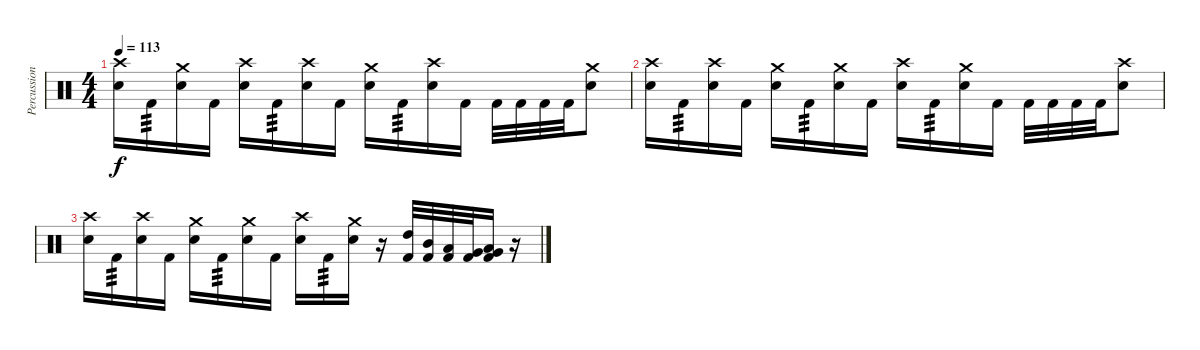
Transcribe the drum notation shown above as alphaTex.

\track ("Percussion" "Percussion") {instrument percussion}
\staff {score}
\articulation defaults
\ts (4 4)
\tempo 113
\clef neutral
\ks c
("Crash high (hit)" "Electric Snare (hit)").16{dy f} "Kick (hit) 2".16{tp 3} ("Crash medium (hit)" "Electric Snare (hit)").16 "Kick (hit) 2".16 ("Crash high (hit)" "Electric Snare (hit)").16 "Kick (hit) 2".16{tp 3} ("Crash high (hit)" "Electric Snare (hit)").16 "Kick (hit) 2".16 ("Crash medium (hit)" "Electric Snare (hit)").16 "Kick (hit) 2".16{tp 3} ("Crash high (hit)" "Electric Snare (hit)").16 "Kick (hit) 2".16 "Kick (hit) 2".32 "Kick (hit) 2".32 "Kick (hit) 2".32 "Kick (hit) 2".32 ("Crash medium (hit)" "Electric Snare (hit)").8 |
("Crash high (hit)" "Electric Snare (hit)").16 "Kick (hit) 2".16{tp 3} ("Crash high (hit)" "Electric Snare (hit)").16 "Kick (hit) 2".16 ("Crash medium (hit)" "Electric Snare (hit)").16 "Kick (hit) 2".16{tp 3} ("Crash medium (hit)" "Electric Snare (hit)").16 "Kick (hit) 2".16 ("Crash high (hit)" "Electric Snare (hit)").16 "Kick (hit) 2".16{tp 3} ("Crash medium (hit)" "Electric Snare (hit)").16 "Kick (hit) 2".16 "Kick (hit) 2".32 "Kick (hit) 2".32 "Kick (hit) 2".32 "Kick (hit) 2".32 ("Crash high (hit)" "Electric Snare (hit)").8 |
("Crash high (hit)" "Electric Snare (hit)").16 "Kick (hit) 2".16{tp 3} ("Crash high (hit)" "Electric Snare (hit)").16 "Kick (hit) 2".16 ("Crash medium (hit)" "Electric Snare (hit)").16 "Kick (hit) 2".16{tp 3} ("Crash medium (hit)" "Electric Snare (hit)").16 "Kick (hit) 2".16 ("Crash high (hit)" "Electric Snare (hit)").16 "Kick (hit) 2".16{tp 3} ("Crash medium (hit)" "Electric Snare (hit)").16 r.16 ("High Tom (hit)" "Kick (hit) 2").32 ("Mid Tom (hit)" "Kick (hit) 2").32 ("Low Tom (hit)" "Kick (hit) 2").32 ("Very Low Tom (hit)" "Kick (hit) 2").32 ("Low Floor Tom (hit)" "Very Low Tom (hit)" "Kick (hit) 2").16 r.16
